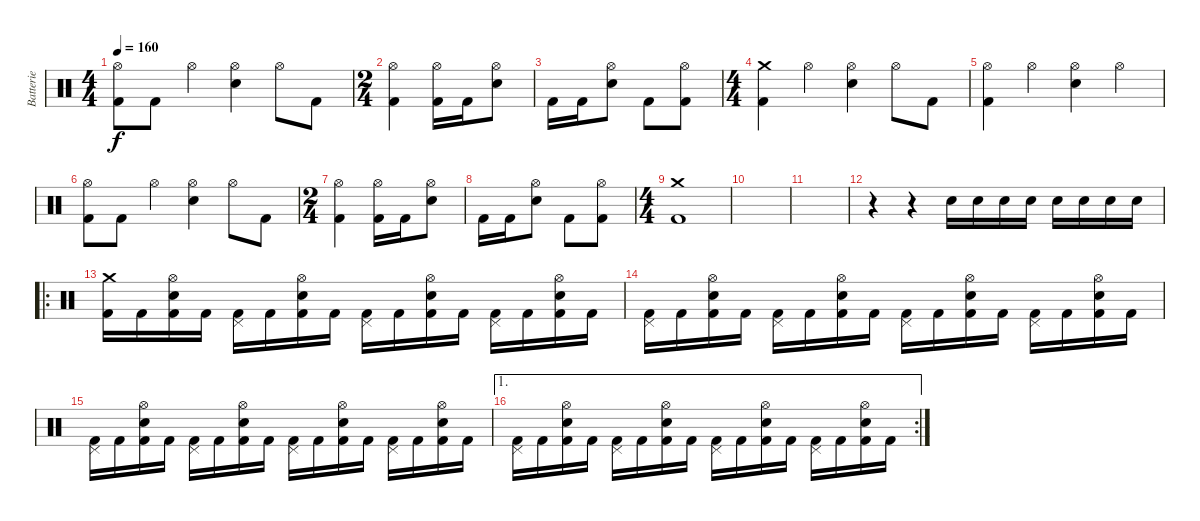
\track ("Batterie" "Batterie") {instrument percussion}
\staff {score}
\articulation defaults
\ts (4 4)
\tempo 160
\clef neutral
\ks c
("Hi-Hat (open)" "Kick (hit) 2").8{dy f} "Kick (hit) 2".8 "Hi-Hat (open)".4 ("Hi-Hat (open)" "Electric Snare (hit)").4 "Hi-Hat (open)".8 "Kick (hit) 2".8 |
\ts (2 4)
("Hi-Hat (open)" "Kick (hit) 2").4 ("Hi-Hat (open)" "Kick (hit) 2").16 "Kick (hit) 2".16 ("Hi-Hat (open)" "Electric Snare (hit)").8 |
"Kick (hit) 2".16 "Kick (hit) 2".16 ("Hi-Hat (open)" "Electric Snare (hit)").8 "Kick (hit) 2".8 ("Hi-Hat (open)" "Kick (hit) 2").8 |
\ts (4 4)
("Crash medium (hit)" "Kick (hit) 2").4 "Hi-Hat (open)".4 ("Hi-Hat (open)" "Electric Snare (hit)").4 "Hi-Hat (open)".8 "Kick (hit) 2".8 |
("Hi-Hat (open)" "Kick (hit) 2").4 "Hi-Hat (open)".4 ("Hi-Hat (open)" "Electric Snare (hit)").4 "Hi-Hat (open)".4 |
("Hi-Hat (open)" "Kick (hit) 2").8 "Kick (hit) 2".8 "Hi-Hat (open)".4 ("Hi-Hat (open)" "Electric Snare (hit)").4 "Hi-Hat (open)".8 "Kick (hit) 2".8 |
\ts (2 4)
("Hi-Hat (open)" "Kick (hit) 2").4 ("Hi-Hat (open)" "Kick (hit) 2").16 "Kick (hit) 2".16 ("Hi-Hat (open)" "Electric Snare (hit)").8 |
"Kick (hit) 2".16 "Kick (hit) 2".16 ("Hi-Hat (open)" "Electric Snare (hit)").8 "Kick (hit) 2".8 ("Hi-Hat (open)" "Kick (hit) 2").8 |
\ts (4 4)
("Crash medium (hit)" "Kick (hit) 2").1 |
|
|
r.4 r.4 "Electric Snare (hit)".16 "Electric Snare (hit)".16 "Electric Snare (hit)".16 "Electric Snare (hit)".16 "Electric Snare (hit)".16 "Electric Snare (hit)".16 "Electric Snare (hit)".16 "Electric Snare (hit)".16 |
\ro
("Crash medium (hit)" "Kick (hit) 2").16 "Kick (hit) 2".16 ("Hi-Hat (open)" "Electric Snare (hit)" "Kick (hit) 2").16 "Kick (hit) 2".16 ("Pedal Hi-Hat (hit)" "Kick (hit) 2").16 "Kick (hit) 2".16 ("Hi-Hat (open)" "Electric Snare (hit)" "Kick (hit) 2").16 "Kick (hit) 2".16 ("Pedal Hi-Hat (hit)" "Kick (hit) 2").16 "Kick (hit) 2".16 ("Hi-Hat (open)" "Electric Snare (hit)" "Kick (hit) 2").16 "Kick (hit) 2".16 ("Pedal Hi-Hat (hit)" "Kick (hit) 2").16 "Kick (hit) 2".16 ("Hi-Hat (open)" "Electric Snare (hit)" "Kick (hit) 2").16 "Kick (hit) 2".16 |
("Pedal Hi-Hat (hit)" "Kick (hit) 2").16 "Kick (hit) 2".16 ("Hi-Hat (open)" "Electric Snare (hit)" "Kick (hit) 2").16 "Kick (hit) 2".16 ("Pedal Hi-Hat (hit)" "Kick (hit) 2").16 "Kick (hit) 2".16 ("Hi-Hat (open)" "Electric Snare (hit)" "Kick (hit) 2").16 "Kick (hit) 2".16 ("Pedal Hi-Hat (hit)" "Kick (hit) 2").16 "Kick (hit) 2".16 ("Hi-Hat (open)" "Electric Snare (hit)" "Kick (hit) 2").16 "Kick (hit) 2".16 ("Pedal Hi-Hat (hit)" "Kick (hit) 2").16 "Kick (hit) 2".16 ("Hi-Hat (open)" "Electric Snare (hit)" "Kick (hit) 2").16 "Kick (hit) 2".16 |
("Pedal Hi-Hat (hit)" "Kick (hit) 2").16 "Kick (hit) 2".16 ("Hi-Hat (open)" "Electric Snare (hit)" "Kick (hit) 2").16 "Kick (hit) 2".16 ("Pedal Hi-Hat (hit)" "Kick (hit) 2").16 "Kick (hit) 2".16 ("Hi-Hat (open)" "Electric Snare (hit)" "Kick (hit) 2").16 "Kick (hit) 2".16 ("Pedal Hi-Hat (hit)" "Kick (hit) 2").16 "Kick (hit) 2".16 ("Hi-Hat (open)" "Electric Snare (hit)" "Kick (hit) 2").16 "Kick (hit) 2".16 ("Pedal Hi-Hat (hit)" "Kick (hit) 2").16 "Kick (hit) 2".16 ("Hi-Hat (open)" "Electric Snare (hit)" "Kick (hit) 2").16 "Kick (hit) 2".16 |
\ae 1
\rc 2
("Pedal Hi-Hat (hit)" "Kick (hit) 2").16 "Kick (hit) 2".16 ("Hi-Hat (open)" "Electric Snare (hit)" "Kick (hit) 2").16 "Kick (hit) 2".16 ("Pedal Hi-Hat (hit)" "Kick (hit) 2").16 "Kick (hit) 2".16 ("Hi-Hat (open)" "Electric Snare (hit)" "Kick (hit) 2").16 "Kick (hit) 2".16 ("Pedal Hi-Hat (hit)" "Kick (hit) 2").16 "Kick (hit) 2".16 ("Hi-Hat (open)" "Electric Snare (hit)" "Kick (hit) 2").16 "Kick (hit) 2".16 ("Pedal Hi-Hat (hit)" "Kick (hit) 2").16 "Kick (hit) 2".16 ("Hi-Hat (open)" "Electric Snare (hit)" "Kick (hit) 2").16 "Kick (hit) 2".16
